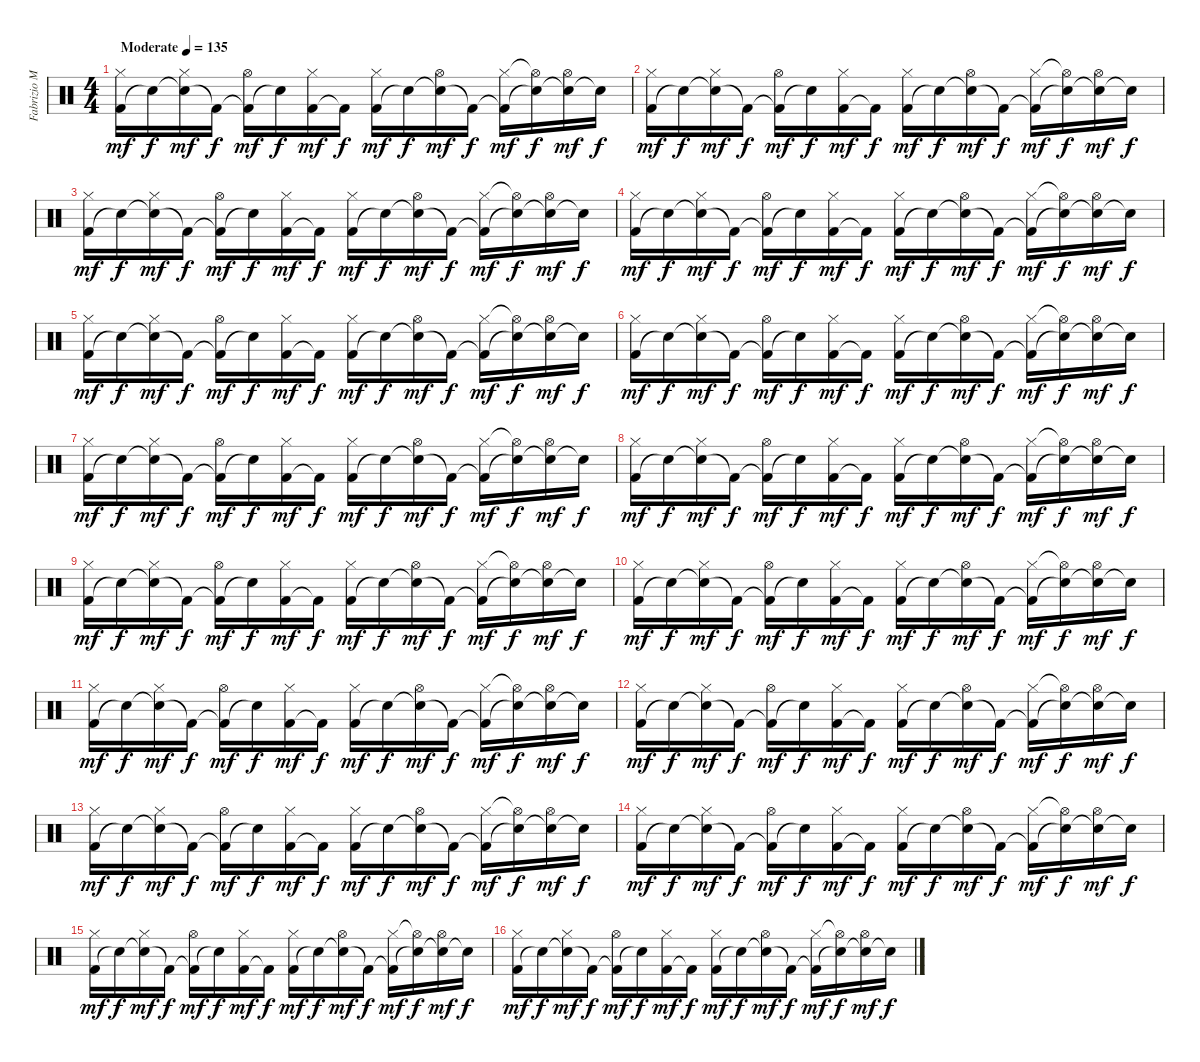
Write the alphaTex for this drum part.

\track ("Fabrizio Moretti" "Fabrizio M") {instrument percussion}
\staff {score}
\articulation defaults
\ts (4 4)
\tempo (135 "Moderate")
\clef neutral
\ks c
("Kick (hit) 2" "Hi-Hat (closed)").16{dy mf} "Snare (hit)"{t}.16{dy f} ("Snare (hit)"{t} "Hi-Hat (closed)").16{dy mf} "Kick (hit) 2"{t}.16{dy f} ("Kick (hit) 2"{t} "Hi-Hat (open)").16{dy mf} "Snare (hit)"{t}.16{dy f} ("Kick (hit) 2" "Hi-Hat (closed)").16{dy mf} "Kick (hit) 2"{t}.16{dy f} ("Kick (hit) 2" "Hi-Hat (closed)").16{dy mf} "Snare (hit)"{t}.16{dy f} ("Snare (hit)"{t} "Hi-Hat (open)").16{dy mf} "Kick (hit) 2"{t}.16{dy f} ("Kick (hit) 2"{t} "Hi-Hat (closed)").16{dy mf} ("Snare (hit)"{t} "Hi-Hat (open)"{t}).16{dy f} ("Snare (hit)"{t} "Hi-Hat (open)").16{dy mf} "Snare (hit)"{t}.16{dy f} |
("Kick (hit) 2" "Hi-Hat (closed)").16{dy mf} "Snare (hit)"{t}.16{dy f} ("Snare (hit)"{t} "Hi-Hat (closed)").16{dy mf} "Kick (hit) 2"{t}.16{dy f} ("Kick (hit) 2"{t} "Hi-Hat (open)").16{dy mf} "Snare (hit)"{t}.16{dy f} ("Kick (hit) 2" "Hi-Hat (closed)").16{dy mf} "Kick (hit) 2"{t}.16{dy f} ("Kick (hit) 2" "Hi-Hat (closed)").16{dy mf} "Snare (hit)"{t}.16{dy f} ("Snare (hit)"{t} "Hi-Hat (open)").16{dy mf} "Kick (hit) 2"{t}.16{dy f} ("Kick (hit) 2"{t} "Hi-Hat (closed)").16{dy mf} ("Snare (hit)"{t} "Hi-Hat (open)"{t}).16{dy f} ("Snare (hit)"{t} "Hi-Hat (open)").16{dy mf} "Snare (hit)"{t}.16{dy f} |
("Kick (hit) 2" "Hi-Hat (closed)").16{dy mf} "Snare (hit)"{t}.16{dy f} ("Snare (hit)"{t} "Hi-Hat (closed)").16{dy mf} "Kick (hit) 2"{t}.16{dy f} ("Kick (hit) 2"{t} "Hi-Hat (open)").16{dy mf} "Snare (hit)"{t}.16{dy f} ("Kick (hit) 2" "Hi-Hat (closed)").16{dy mf} "Kick (hit) 2"{t}.16{dy f} ("Kick (hit) 2" "Hi-Hat (closed)").16{dy mf} "Snare (hit)"{t}.16{dy f} ("Snare (hit)"{t} "Hi-Hat (open)").16{dy mf} "Kick (hit) 2"{t}.16{dy f} ("Kick (hit) 2"{t} "Hi-Hat (closed)").16{dy mf} ("Snare (hit)"{t} "Hi-Hat (open)"{t}).16{dy f} ("Snare (hit)"{t} "Hi-Hat (open)").16{dy mf} "Snare (hit)"{t}.16{dy f} |
("Kick (hit) 2" "Hi-Hat (closed)").16{dy mf} "Snare (hit)"{t}.16{dy f} ("Snare (hit)"{t} "Hi-Hat (closed)").16{dy mf} "Kick (hit) 2"{t}.16{dy f} ("Kick (hit) 2"{t} "Hi-Hat (open)").16{dy mf} "Snare (hit)"{t}.16{dy f} ("Kick (hit) 2" "Hi-Hat (closed)").16{dy mf} "Kick (hit) 2"{t}.16{dy f} ("Kick (hit) 2" "Hi-Hat (closed)").16{dy mf} "Snare (hit)"{t}.16{dy f} ("Snare (hit)"{t} "Hi-Hat (open)").16{dy mf} "Kick (hit) 2"{t}.16{dy f} ("Kick (hit) 2"{t} "Hi-Hat (closed)").16{dy mf} ("Snare (hit)"{t} "Hi-Hat (open)"{t}).16{dy f} ("Snare (hit)"{t} "Hi-Hat (open)").16{dy mf} "Snare (hit)"{t}.16{dy f} |
("Kick (hit) 2" "Hi-Hat (closed)").16{dy mf} "Snare (hit)"{t}.16{dy f} ("Snare (hit)"{t} "Hi-Hat (closed)").16{dy mf} "Kick (hit) 2"{t}.16{dy f} ("Kick (hit) 2"{t} "Hi-Hat (open)").16{dy mf} "Snare (hit)"{t}.16{dy f} ("Kick (hit) 2" "Hi-Hat (closed)").16{dy mf} "Kick (hit) 2"{t}.16{dy f} ("Kick (hit) 2" "Hi-Hat (closed)").16{dy mf} "Snare (hit)"{t}.16{dy f} ("Snare (hit)"{t} "Hi-Hat (open)").16{dy mf} "Kick (hit) 2"{t}.16{dy f} ("Kick (hit) 2"{t} "Hi-Hat (closed)").16{dy mf} ("Snare (hit)"{t} "Hi-Hat (open)"{t}).16{dy f} ("Snare (hit)"{t} "Hi-Hat (open)").16{dy mf} "Snare (hit)"{t}.16{dy f} |
("Kick (hit) 2" "Hi-Hat (closed)").16{dy mf} "Snare (hit)"{t}.16{dy f} ("Snare (hit)"{t} "Hi-Hat (closed)").16{dy mf} "Kick (hit) 2"{t}.16{dy f} ("Kick (hit) 2"{t} "Hi-Hat (open)").16{dy mf} "Snare (hit)"{t}.16{dy f} ("Kick (hit) 2" "Hi-Hat (closed)").16{dy mf} "Kick (hit) 2"{t}.16{dy f} ("Kick (hit) 2" "Hi-Hat (closed)").16{dy mf} "Snare (hit)"{t}.16{dy f} ("Snare (hit)"{t} "Hi-Hat (open)").16{dy mf} "Kick (hit) 2"{t}.16{dy f} ("Kick (hit) 2"{t} "Hi-Hat (closed)").16{dy mf} ("Snare (hit)"{t} "Hi-Hat (open)"{t}).16{dy f} ("Snare (hit)"{t} "Hi-Hat (open)").16{dy mf} "Snare (hit)"{t}.16{dy f} |
("Kick (hit) 2" "Hi-Hat (closed)").16{dy mf} "Snare (hit)"{t}.16{dy f} ("Snare (hit)"{t} "Hi-Hat (closed)").16{dy mf} "Kick (hit) 2"{t}.16{dy f} ("Kick (hit) 2"{t} "Hi-Hat (open)").16{dy mf} "Snare (hit)"{t}.16{dy f} ("Kick (hit) 2" "Hi-Hat (closed)").16{dy mf} "Kick (hit) 2"{t}.16{dy f} ("Kick (hit) 2" "Hi-Hat (closed)").16{dy mf} "Snare (hit)"{t}.16{dy f} ("Snare (hit)"{t} "Hi-Hat (open)").16{dy mf} "Kick (hit) 2"{t}.16{dy f} ("Kick (hit) 2"{t} "Hi-Hat (closed)").16{dy mf} ("Snare (hit)"{t} "Hi-Hat (open)"{t}).16{dy f} ("Snare (hit)"{t} "Hi-Hat (open)").16{dy mf} "Snare (hit)"{t}.16{dy f} |
("Kick (hit) 2" "Hi-Hat (closed)").16{dy mf} "Snare (hit)"{t}.16{dy f} ("Snare (hit)"{t} "Hi-Hat (closed)").16{dy mf} "Kick (hit) 2"{t}.16{dy f} ("Kick (hit) 2"{t} "Hi-Hat (open)").16{dy mf} "Snare (hit)"{t}.16{dy f} ("Kick (hit) 2" "Hi-Hat (closed)").16{dy mf} "Kick (hit) 2"{t}.16{dy f} ("Kick (hit) 2" "Hi-Hat (closed)").16{dy mf} "Snare (hit)"{t}.16{dy f} ("Snare (hit)"{t} "Hi-Hat (open)").16{dy mf} "Kick (hit) 2"{t}.16{dy f} ("Kick (hit) 2"{t} "Hi-Hat (closed)").16{dy mf} ("Snare (hit)"{t} "Hi-Hat (open)"{t}).16{dy f} ("Snare (hit)"{t} "Hi-Hat (open)").16{dy mf} "Snare (hit)"{t}.16{dy f} |
("Kick (hit) 2" "Hi-Hat (closed)").16{dy mf} "Snare (hit)"{t}.16{dy f} ("Snare (hit)"{t} "Hi-Hat (closed)").16{dy mf} "Kick (hit) 2"{t}.16{dy f} ("Kick (hit) 2"{t} "Hi-Hat (open)").16{dy mf} "Snare (hit)"{t}.16{dy f} ("Kick (hit) 2" "Hi-Hat (closed)").16{dy mf} "Kick (hit) 2"{t}.16{dy f} ("Kick (hit) 2" "Hi-Hat (closed)").16{dy mf} "Snare (hit)"{t}.16{dy f} ("Snare (hit)"{t} "Hi-Hat (open)").16{dy mf} "Kick (hit) 2"{t}.16{dy f} ("Kick (hit) 2"{t} "Hi-Hat (closed)").16{dy mf} ("Snare (hit)"{t} "Hi-Hat (open)"{t}).16{dy f} ("Snare (hit)"{t} "Hi-Hat (open)").16{dy mf} "Snare (hit)"{t}.16{dy f} |
("Kick (hit) 2" "Hi-Hat (closed)").16{dy mf} "Snare (hit)"{t}.16{dy f} ("Snare (hit)"{t} "Hi-Hat (closed)").16{dy mf} "Kick (hit) 2"{t}.16{dy f} ("Kick (hit) 2"{t} "Hi-Hat (open)").16{dy mf} "Snare (hit)"{t}.16{dy f} ("Kick (hit) 2" "Hi-Hat (closed)").16{dy mf} "Kick (hit) 2"{t}.16{dy f} ("Kick (hit) 2" "Hi-Hat (closed)").16{dy mf} "Snare (hit)"{t}.16{dy f} ("Snare (hit)"{t} "Hi-Hat (open)").16{dy mf} "Kick (hit) 2"{t}.16{dy f} ("Kick (hit) 2"{t} "Hi-Hat (closed)").16{dy mf} ("Snare (hit)"{t} "Hi-Hat (open)"{t}).16{dy f} ("Snare (hit)"{t} "Hi-Hat (open)").16{dy mf} "Snare (hit)"{t}.16{dy f} |
("Kick (hit) 2" "Hi-Hat (closed)").16{dy mf} "Snare (hit)"{t}.16{dy f} ("Snare (hit)"{t} "Hi-Hat (closed)").16{dy mf} "Kick (hit) 2"{t}.16{dy f} ("Kick (hit) 2"{t} "Hi-Hat (open)").16{dy mf} "Snare (hit)"{t}.16{dy f} ("Kick (hit) 2" "Hi-Hat (closed)").16{dy mf} "Kick (hit) 2"{t}.16{dy f} ("Kick (hit) 2" "Hi-Hat (closed)").16{dy mf} "Snare (hit)"{t}.16{dy f} ("Snare (hit)"{t} "Hi-Hat (open)").16{dy mf} "Kick (hit) 2"{t}.16{dy f} ("Kick (hit) 2"{t} "Hi-Hat (closed)").16{dy mf} ("Snare (hit)"{t} "Hi-Hat (open)"{t}).16{dy f} ("Snare (hit)"{t} "Hi-Hat (open)").16{dy mf} "Snare (hit)"{t}.16{dy f} |
("Kick (hit) 2" "Hi-Hat (closed)").16{dy mf} "Snare (hit)"{t}.16{dy f} ("Snare (hit)"{t} "Hi-Hat (closed)").16{dy mf} "Kick (hit) 2"{t}.16{dy f} ("Kick (hit) 2"{t} "Hi-Hat (open)").16{dy mf} "Snare (hit)"{t}.16{dy f} ("Kick (hit) 2" "Hi-Hat (closed)").16{dy mf} "Kick (hit) 2"{t}.16{dy f} ("Kick (hit) 2" "Hi-Hat (closed)").16{dy mf} "Snare (hit)"{t}.16{dy f} ("Snare (hit)"{t} "Hi-Hat (open)").16{dy mf} "Kick (hit) 2"{t}.16{dy f} ("Kick (hit) 2"{t} "Hi-Hat (closed)").16{dy mf} ("Snare (hit)"{t} "Hi-Hat (open)"{t}).16{dy f} ("Snare (hit)"{t} "Hi-Hat (open)").16{dy mf} "Snare (hit)"{t}.16{dy f} |
("Kick (hit) 2" "Hi-Hat (closed)").16{dy mf} "Snare (hit)"{t}.16{dy f} ("Snare (hit)"{t} "Hi-Hat (closed)").16{dy mf} "Kick (hit) 2"{t}.16{dy f} ("Kick (hit) 2"{t} "Hi-Hat (open)").16{dy mf} "Snare (hit)"{t}.16{dy f} ("Kick (hit) 2" "Hi-Hat (closed)").16{dy mf} "Kick (hit) 2"{t}.16{dy f} ("Kick (hit) 2" "Hi-Hat (closed)").16{dy mf} "Snare (hit)"{t}.16{dy f} ("Snare (hit)"{t} "Hi-Hat (open)").16{dy mf} "Kick (hit) 2"{t}.16{dy f} ("Kick (hit) 2"{t} "Hi-Hat (closed)").16{dy mf} ("Snare (hit)"{t} "Hi-Hat (open)"{t}).16{dy f} ("Snare (hit)"{t} "Hi-Hat (open)").16{dy mf} "Snare (hit)"{t}.16{dy f} |
("Kick (hit) 2" "Hi-Hat (closed)").16{dy mf} "Snare (hit)"{t}.16{dy f} ("Snare (hit)"{t} "Hi-Hat (closed)").16{dy mf} "Kick (hit) 2"{t}.16{dy f} ("Kick (hit) 2"{t} "Hi-Hat (open)").16{dy mf} "Snare (hit)"{t}.16{dy f} ("Kick (hit) 2" "Hi-Hat (closed)").16{dy mf} "Kick (hit) 2"{t}.16{dy f} ("Kick (hit) 2" "Hi-Hat (closed)").16{dy mf} "Snare (hit)"{t}.16{dy f} ("Snare (hit)"{t} "Hi-Hat (open)").16{dy mf} "Kick (hit) 2"{t}.16{dy f} ("Kick (hit) 2"{t} "Hi-Hat (closed)").16{dy mf} ("Snare (hit)"{t} "Hi-Hat (open)"{t}).16{dy f} ("Snare (hit)"{t} "Hi-Hat (open)").16{dy mf} "Snare (hit)"{t}.16{dy f} |
("Kick (hit) 2" "Hi-Hat (closed)").16{dy mf} "Snare (hit)"{t}.16{dy f} ("Snare (hit)"{t} "Hi-Hat (closed)").16{dy mf} "Kick (hit) 2"{t}.16{dy f} ("Kick (hit) 2"{t} "Hi-Hat (open)").16{dy mf} "Snare (hit)"{t}.16{dy f} ("Kick (hit) 2" "Hi-Hat (closed)").16{dy mf} "Kick (hit) 2"{t}.16{dy f} ("Kick (hit) 2" "Hi-Hat (closed)").16{dy mf} "Snare (hit)"{t}.16{dy f} ("Snare (hit)"{t} "Hi-Hat (open)").16{dy mf} "Kick (hit) 2"{t}.16{dy f} ("Kick (hit) 2"{t} "Hi-Hat (closed)").16{dy mf} ("Snare (hit)"{t} "Hi-Hat (open)"{t}).16{dy f} ("Snare (hit)"{t} "Hi-Hat (open)").16{dy mf} "Snare (hit)"{t}.16{dy f} |
("Kick (hit) 2" "Hi-Hat (closed)").16{dy mf} "Snare (hit)"{t}.16{dy f} ("Snare (hit)"{t} "Hi-Hat (closed)").16{dy mf} "Kick (hit) 2"{t}.16{dy f} ("Kick (hit) 2"{t} "Hi-Hat (open)").16{dy mf} "Snare (hit)"{t}.16{dy f} ("Kick (hit) 2" "Hi-Hat (closed)").16{dy mf} "Kick (hit) 2"{t}.16{dy f} ("Kick (hit) 2" "Hi-Hat (closed)").16{dy mf} "Snare (hit)"{t}.16{dy f} ("Snare (hit)"{t} "Hi-Hat (open)").16{dy mf} "Kick (hit) 2"{t}.16{dy f} ("Kick (hit) 2"{t} "Hi-Hat (closed)").16{dy mf} ("Snare (hit)"{t} "Hi-Hat (open)"{t}).16{dy f} ("Snare (hit)"{t} "Hi-Hat (open)").16{dy mf} "Snare (hit)"{t}.16{dy f}
